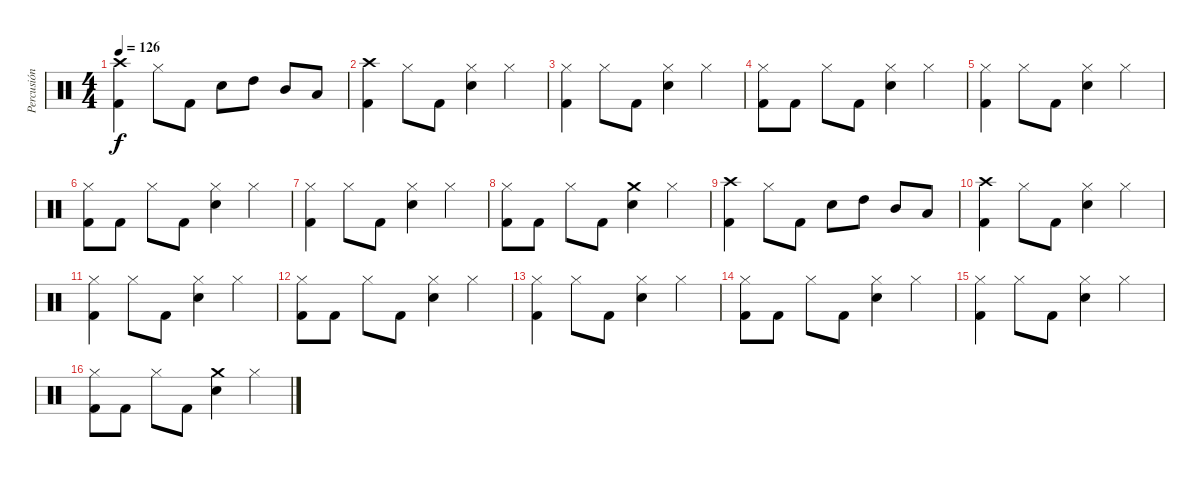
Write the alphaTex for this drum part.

\track ("Percusión" "Percusión") {instrument percussion}
\staff {score}
\articulation defaults
\ts (4 4)
\tempo 126
\clef neutral
\ks c
("Crash high (hit)" "Kick (hit) 2").4{dy f} "Hi-Hat (closed)".8 "Kick (hit) 2".8 "Electric Snare (hit)".8 "High Tom (hit)".8 "Mid Tom (hit)".8 "Low Tom (hit)".8 |
("Crash high (hit)" "Kick (hit) 2").4 "Hi-Hat (closed)".8 "Kick (hit) 2".8 ("Hi-Hat (closed)" "Electric Snare (hit)").4 "Hi-Hat (closed)".4 |
("Hi-Hat (closed)" "Kick (hit) 2").4 "Hi-Hat (closed)".8 "Kick (hit) 2".8 ("Hi-Hat (closed)" "Electric Snare (hit)").4 "Hi-Hat (closed)".4 |
("Hi-Hat (closed)" "Kick (hit) 2").8 "Kick (hit) 2".8 "Hi-Hat (closed)".8 "Kick (hit) 2".8 ("Hi-Hat (closed)" "Electric Snare (hit)").4 "Hi-Hat (closed)".4 |
("Hi-Hat (closed)" "Kick (hit) 2").4 "Hi-Hat (closed)".8 "Kick (hit) 2".8 ("Hi-Hat (closed)" "Electric Snare (hit)").4 "Hi-Hat (closed)".4 |
("Hi-Hat (closed)" "Kick (hit) 2").8 "Kick (hit) 2".8 "Hi-Hat (closed)".8 "Kick (hit) 2".8 ("Hi-Hat (closed)" "Electric Snare (hit)").4 "Hi-Hat (closed)".4 |
("Hi-Hat (closed)" "Kick (hit) 2").4 "Hi-Hat (closed)".8 "Kick (hit) 2".8 ("Hi-Hat (closed)" "Electric Snare (hit)").4 "Hi-Hat (closed)".4 |
("Hi-Hat (closed)" "Kick (hit) 2").8 "Kick (hit) 2".8 "Hi-Hat (closed)".8 "Kick (hit) 2".8 ("Crash medium (hit)" "Electric Snare (hit)").4 "Hi-Hat (closed)".4 |
("Crash high (hit)" "Kick (hit) 2").4 "Hi-Hat (closed)".8 "Kick (hit) 2".8 "Electric Snare (hit)".8 "High Tom (hit)".8 "Mid Tom (hit)".8 "Low Tom (hit)".8 |
("Crash high (hit)" "Kick (hit) 2").4 "Hi-Hat (closed)".8 "Kick (hit) 2".8 ("Hi-Hat (closed)" "Electric Snare (hit)").4 "Hi-Hat (closed)".4 |
("Hi-Hat (closed)" "Kick (hit) 2").4 "Hi-Hat (closed)".8 "Kick (hit) 2".8 ("Hi-Hat (closed)" "Electric Snare (hit)").4 "Hi-Hat (closed)".4 |
("Hi-Hat (closed)" "Kick (hit) 2").8 "Kick (hit) 2".8 "Hi-Hat (closed)".8 "Kick (hit) 2".8 ("Hi-Hat (closed)" "Electric Snare (hit)").4 "Hi-Hat (closed)".4 |
("Hi-Hat (closed)" "Kick (hit) 2").4 "Hi-Hat (closed)".8 "Kick (hit) 2".8 ("Hi-Hat (closed)" "Electric Snare (hit)").4 "Hi-Hat (closed)".4 |
("Hi-Hat (closed)" "Kick (hit) 2").8 "Kick (hit) 2".8 "Hi-Hat (closed)".8 "Kick (hit) 2".8 ("Hi-Hat (closed)" "Electric Snare (hit)").4 "Hi-Hat (closed)".4 |
("Hi-Hat (closed)" "Kick (hit) 2").4 "Hi-Hat (closed)".8 "Kick (hit) 2".8 ("Hi-Hat (closed)" "Electric Snare (hit)").4 "Hi-Hat (closed)".4 |
("Hi-Hat (closed)" "Kick (hit) 2").8 "Kick (hit) 2".8 "Hi-Hat (closed)".8 "Kick (hit) 2".8 ("Crash medium (hit)" "Electric Snare (hit)").4 "Hi-Hat (closed)".4
